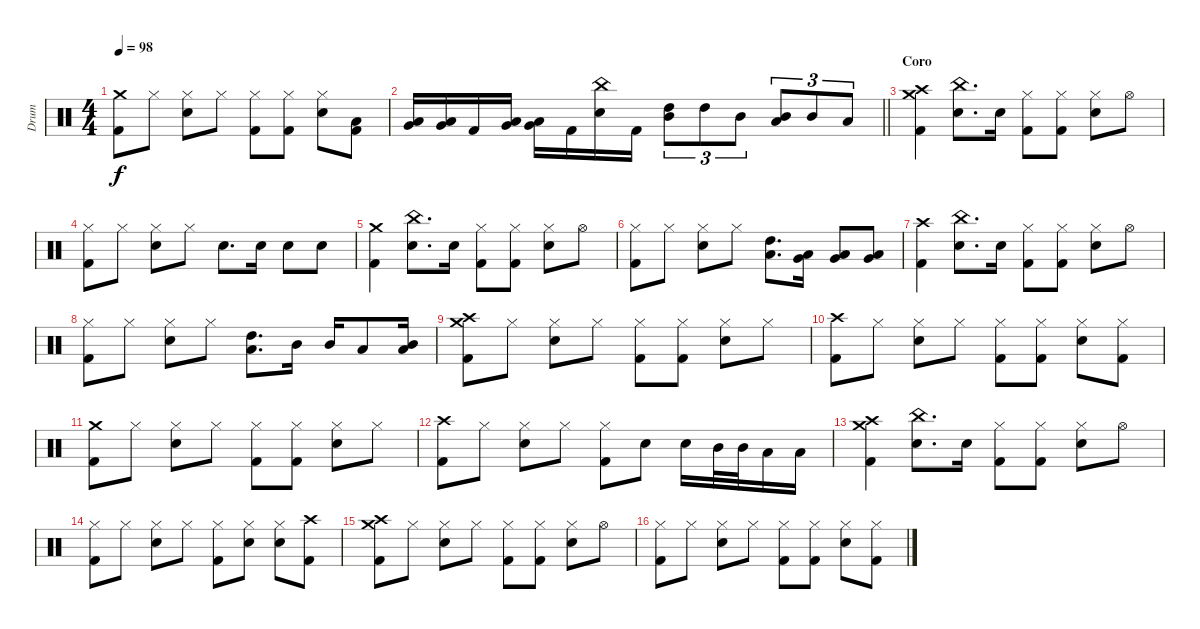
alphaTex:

\track ("Drum" "Drum") {instrument percussion}
\staff {score}
\articulation defaults
\ts (4 4)
\tempo 98
\clef neutral
\ks c
("Crash medium (hit)" "Kick (hit) 2").8{dy f} "Hi-Hat (closed)".8 ("Hi-Hat (closed)" "Snare (hit) 2").8 "Hi-Hat (closed)".8 ("Hi-Hat (closed)" "Kick (hit) 2").8 ("Hi-Hat (closed)" "Kick (hit) 2").8 ("Hi-Hat (closed)" "Snare (hit) 2").8 ("Low Floor Tom (hit)" "Kick (hit) 2").8 |
\barLineRight lightlight
("Very Low Tom (hit)" "Low Tom (hit)").16 ("Very Low Tom (hit)" "Low Tom (hit)").16 "Kick (hit) 2".16 ("Low Floor Tom (hit)" "Very Low Tom (hit)").16 ("Low Floor Tom (hit)" "Very Low Tom (hit)").16 "Kick (hit) 2".16 ("China (hit)" "Snare (hit) 2").16 "Kick (hit) 2".16 ("Mid Tom (hit)" "High Tom (hit)").8{tu (3 2)} "High Tom (hit)".8{tu (3 2)} "Mid Tom (hit)".8{tu (3 2)} ("Low Tom (hit)" "Mid Tom (hit)").8{tu (3 2)} "Mid Tom (hit)".8{tu (3 2)} "Low Tom (hit)".8{tu (3 2)} |
\section ("" "Coro")
("Crash medium (hit)" "Crash high (hit)" "Kick (hit) 2").4 ("China (hit)" "Snare (hit) 2").8{d} "Snare (hit) 2".16 ("Hi-Hat (closed)" "Kick (hit) 2").8 ("Hi-Hat (closed)" "Kick (hit) 2").8 ("Hi-Hat (closed)" "Snare (hit) 2").8 "Hi-Hat (open)".8 |
("Hi-Hat (closed)" "Kick (hit) 2").8 "Hi-Hat (closed)".8 ("Hi-Hat (closed)" "Snare (hit) 2").8 "Hi-Hat (closed)".8 "Snare (hit) 2".8{d} "Snare (hit) 2".16 "Snare (hit) 2".8 "Snare (hit) 2".8 |
("Crash medium (hit)" "Kick (hit) 2").4 ("China (hit)" "Snare (hit) 2").8{d} "Snare (hit) 2".16 ("Hi-Hat (closed)" "Kick (hit) 2").8 ("Hi-Hat (closed)" "Kick (hit) 2").8 ("Hi-Hat (closed)" "Snare (hit) 2").8 "Hi-Hat (open)".8 |
("Hi-Hat (closed)" "Kick (hit) 2").8 "Hi-Hat (closed)".8 ("Hi-Hat (closed)" "Snare (hit) 2").8 "Hi-Hat (closed)".8 ("Low Tom (hit)" "High Tom (hit)").8{d} ("Low Tom (hit)" "Very Low Tom (hit)").16 ("Very Low Tom (hit)" "Low Floor Tom (hit)").8 ("Very Low Tom (hit)" "Low Floor Tom (hit)").8 |
("Crash high (hit)" "Kick (hit) 2").4 ("China (hit)" "Snare (hit) 2").8{d} "Snare (hit) 2".16 ("Hi-Hat (closed)" "Kick (hit) 2").8 ("Hi-Hat (closed)" "Kick (hit) 2").8 ("Hi-Hat (closed)" "Snare (hit) 2").8 "Hi-Hat (open)".8 |
("Hi-Hat (closed)" "Kick (hit) 2").8 "Hi-Hat (closed)".8 ("Hi-Hat (closed)" "Snare (hit) 2").8 "Hi-Hat (closed)".8 ("Low Tom (hit)" "High Tom (hit)").8{d} "Mid Tom (hit)".16 "Mid Tom (hit)".16 "Low Tom (hit)".8 ("Mid Tom (hit)" "Low Tom (hit)").16 |
("Crash medium (hit)" "Crash high (hit)" "Kick (hit) 2").8 "Hi-Hat (closed)".8 ("Hi-Hat (closed)" "Snare (hit) 2").8 "Hi-Hat (closed)".8 ("Hi-Hat (closed)" "Kick (hit) 2").8 ("Hi-Hat (closed)" "Kick (hit) 2").8 ("Hi-Hat (closed)" "Snare (hit) 2").8 "Hi-Hat (closed)".8 |
("Crash high (hit)" "Kick (hit) 2").8 "Hi-Hat (closed)".8 ("Hi-Hat (closed)" "Snare (hit) 2").8 "Hi-Hat (closed)".8 ("Hi-Hat (closed)" "Kick (hit) 2").8 ("Hi-Hat (closed)" "Kick (hit) 2").8 ("Hi-Hat (closed)" "Snare (hit) 2").8 ("Hi-Hat (closed)" "Kick (hit) 2").8 |
("Crash medium (hit)" "Kick (hit) 2").8 "Hi-Hat (closed)".8 ("Hi-Hat (closed)" "Snare (hit) 2").8 "Hi-Hat (closed)".8 ("Hi-Hat (closed)" "Kick (hit) 2").8 ("Hi-Hat (closed)" "Kick (hit) 2").8 ("Hi-Hat (closed)" "Snare (hit) 2").8 "Hi-Hat (closed)".8 |
("Crash high (hit)" "Kick (hit) 2").8 "Hi-Hat (closed)".8 ("Hi-Hat (closed)" "Snare (hit) 2").8 "Hi-Hat (closed)".8 ("Hi-Hat (closed)" "Kick (hit) 2").8 "Snare (hit) 2".8 "Snare (hit) 2".16 "Mid Tom (hit)".32 "Mid Tom (hit)".32 "Low Tom (hit)".16 "Low Tom (hit)".16 |
("Crash medium (hit)" "Crash high (hit)" "Kick (hit) 2").4 ("China (hit)" "Snare (hit) 2").8{d} "Snare (hit) 2".16 ("Hi-Hat (closed)" "Kick (hit) 2").8 ("Hi-Hat (closed)" "Kick (hit) 2").8 ("Hi-Hat (closed)" "Snare (hit) 2").8 "Hi-Hat (open)".8 |
("Hi-Hat (closed)" "Kick (hit) 2").8 "Hi-Hat (closed)".8 ("Hi-Hat (closed)" "Snare (hit) 2").8 "Hi-Hat (closed)".8 ("Hi-Hat (closed)" "Kick (hit) 2").8 ("Hi-Hat (closed)" "Snare (hit) 2").8 ("Hi-Hat (closed)" "Snare (hit) 2").8 ("Crash high (hit)" "Kick (hit) 2").8 |
("Crash medium (hit)" "Crash high (hit)" "Kick (hit) 2").8 "Hi-Hat (closed)".8 ("Hi-Hat (closed)" "Snare (hit) 2").8 "Hi-Hat (closed)".8 ("Hi-Hat (closed)" "Kick (hit) 2").8 ("Hi-Hat (closed)" "Kick (hit) 2").8 ("Hi-Hat (closed)" "Snare (hit) 2").8 "Hi-Hat (open)".8 |
("Hi-Hat (closed)" "Kick (hit) 2").8 "Hi-Hat (closed)".8 ("Hi-Hat (closed)" "Snare (hit) 2").8 "Hi-Hat (closed)".8 ("Hi-Hat (closed)" "Kick (hit) 2").8 ("Hi-Hat (closed)" "Kick (hit) 2").8 ("Hi-Hat (closed)" "Snare (hit) 2").8 ("Hi-Hat (closed)" "Kick (hit) 2").8
